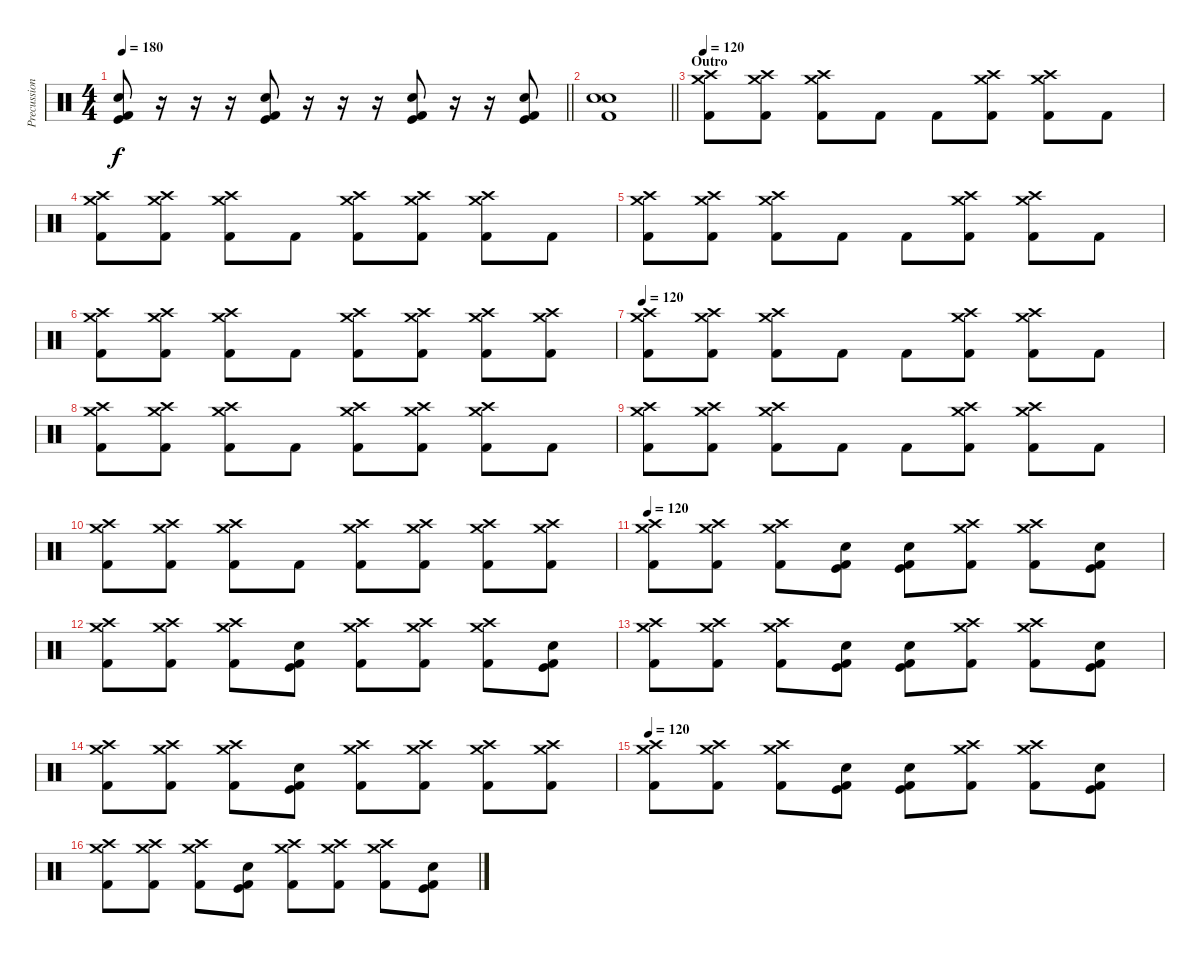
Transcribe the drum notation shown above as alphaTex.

\track ("Precussion" "Precussion") {instrument percussion}
\staff {score}
\articulation defaults
\ts (4 4)
\tempo 180
\clef neutral
\barLineRight lightlight
\ks c
("Kick (hit)" "Snare (hit) 2" "Kick (hit) 2").8{dy f} r.16 r.16 r.16 ("Kick (hit)" "Snare (hit) 2" "Kick (hit) 2").8 r.16 r.16 r.16 ("Kick (hit)" "Snare (hit) 2" "Kick (hit) 2").8 r.16 r.16 ("Kick (hit)" "Snare (hit) 2" "Kick (hit) 2").8 |
\barLineRight lightlight
("Electric Snare (hit)" "Snare (hit) 2" "Kick (hit) 2").1 |
\section ("" "Outro")
\tempo 120
("Crash medium (hit)" "Crash high (hit)" "Kick (hit) 2").8 ("Crash medium (hit)" "Crash high (hit)" "Kick (hit) 2").8 ("Crash medium (hit)" "Crash high (hit)" "Kick (hit) 2").8 "Kick (hit) 2".8 "Kick (hit) 2".8 ("Crash medium (hit)" "Crash high (hit)" "Kick (hit) 2").8 ("Crash medium (hit)" "Crash high (hit)" "Kick (hit) 2").8 "Kick (hit) 2".8 |
("Crash medium (hit)" "Crash high (hit)" "Kick (hit) 2").8 ("Crash medium (hit)" "Crash high (hit)" "Kick (hit) 2").8 ("Crash medium (hit)" "Crash high (hit)" "Kick (hit) 2").8 "Kick (hit) 2".8 ("Crash medium (hit)" "Crash high (hit)" "Kick (hit) 2").8 ("Crash medium (hit)" "Crash high (hit)" "Kick (hit) 2").8 ("Crash medium (hit)" "Crash high (hit)" "Kick (hit) 2").8 "Kick (hit) 2".8 |
("Crash medium (hit)" "Crash high (hit)" "Kick (hit) 2").8 ("Crash medium (hit)" "Crash high (hit)" "Kick (hit) 2").8 ("Crash medium (hit)" "Crash high (hit)" "Kick (hit) 2").8 "Kick (hit) 2".8 "Kick (hit) 2".8 ("Crash medium (hit)" "Crash high (hit)" "Kick (hit) 2").8 ("Crash medium (hit)" "Crash high (hit)" "Kick (hit) 2").8 "Kick (hit) 2".8 |
("Crash medium (hit)" "Crash high (hit)" "Kick (hit) 2").8 ("Crash medium (hit)" "Crash high (hit)" "Kick (hit) 2").8 ("Crash medium (hit)" "Crash high (hit)" "Kick (hit) 2").8 "Kick (hit) 2".8 ("Crash medium (hit)" "Crash high (hit)" "Kick (hit) 2").8 ("Crash medium (hit)" "Crash high (hit)" "Kick (hit) 2").8 ("Crash medium (hit)" "Crash high (hit)" "Kick (hit) 2").8 ("Crash medium (hit)" "Crash high (hit)" "Kick (hit) 2").8 |
\tempo 120
("Crash medium (hit)" "Crash high (hit)" "Kick (hit) 2").8 ("Crash medium (hit)" "Crash high (hit)" "Kick (hit) 2").8 ("Crash medium (hit)" "Crash high (hit)" "Kick (hit) 2").8 "Kick (hit) 2".8 "Kick (hit) 2".8 ("Crash medium (hit)" "Crash high (hit)" "Kick (hit) 2").8 ("Crash medium (hit)" "Crash high (hit)" "Kick (hit) 2").8 "Kick (hit) 2".8 |
("Crash medium (hit)" "Crash high (hit)" "Kick (hit) 2").8 ("Crash medium (hit)" "Crash high (hit)" "Kick (hit) 2").8 ("Crash medium (hit)" "Crash high (hit)" "Kick (hit) 2").8 "Kick (hit) 2".8 ("Crash medium (hit)" "Crash high (hit)" "Kick (hit) 2").8 ("Crash medium (hit)" "Crash high (hit)" "Kick (hit) 2").8 ("Crash medium (hit)" "Crash high (hit)" "Kick (hit) 2").8 "Kick (hit) 2".8 |
("Crash medium (hit)" "Crash high (hit)" "Kick (hit) 2").8 ("Crash medium (hit)" "Crash high (hit)" "Kick (hit) 2").8 ("Crash medium (hit)" "Crash high (hit)" "Kick (hit) 2").8 "Kick (hit) 2".8 "Kick (hit) 2".8 ("Crash medium (hit)" "Crash high (hit)" "Kick (hit) 2").8 ("Crash medium (hit)" "Crash high (hit)" "Kick (hit) 2").8 "Kick (hit) 2".8 |
("Crash medium (hit)" "Crash high (hit)" "Kick (hit) 2").8 ("Crash medium (hit)" "Crash high (hit)" "Kick (hit) 2").8 ("Crash medium (hit)" "Crash high (hit)" "Kick (hit) 2").8 "Kick (hit) 2".8 ("Crash medium (hit)" "Crash high (hit)" "Kick (hit) 2").8 ("Crash medium (hit)" "Crash high (hit)" "Kick (hit) 2").8 ("Crash medium (hit)" "Crash high (hit)" "Kick (hit) 2").8 ("Crash medium (hit)" "Crash high (hit)" "Kick (hit) 2").8 |
\tempo 120
("Crash medium (hit)" "Crash high (hit)" "Kick (hit) 2").8 ("Crash medium (hit)" "Crash high (hit)" "Kick (hit) 2").8 ("Crash medium (hit)" "Crash high (hit)" "Kick (hit) 2").8 ("Kick (hit)" "Snare (hit) 2" "Kick (hit) 2").8 ("Kick (hit)" "Snare (hit) 2" "Kick (hit) 2").8 ("Crash medium (hit)" "Crash high (hit)" "Kick (hit) 2").8 ("Crash medium (hit)" "Crash high (hit)" "Kick (hit) 2").8 ("Kick (hit)" "Snare (hit) 2" "Kick (hit) 2").8 |
("Crash medium (hit)" "Crash high (hit)" "Kick (hit) 2").8 ("Crash medium (hit)" "Crash high (hit)" "Kick (hit) 2").8 ("Crash medium (hit)" "Crash high (hit)" "Kick (hit) 2").8 ("Kick (hit)" "Snare (hit) 2" "Kick (hit) 2").8 ("Crash medium (hit)" "Crash high (hit)" "Kick (hit) 2").8 ("Crash medium (hit)" "Crash high (hit)" "Kick (hit) 2").8 ("Crash medium (hit)" "Crash high (hit)" "Kick (hit) 2").8 ("Kick (hit)" "Snare (hit) 2" "Kick (hit) 2").8 |
("Crash medium (hit)" "Crash high (hit)" "Kick (hit) 2").8 ("Crash medium (hit)" "Crash high (hit)" "Kick (hit) 2").8 ("Crash medium (hit)" "Crash high (hit)" "Kick (hit) 2").8 ("Kick (hit)" "Snare (hit) 2" "Kick (hit) 2").8 ("Kick (hit)" "Snare (hit) 2" "Kick (hit) 2").8 ("Crash medium (hit)" "Crash high (hit)" "Kick (hit) 2").8 ("Crash medium (hit)" "Crash high (hit)" "Kick (hit) 2").8 ("Kick (hit)" "Snare (hit) 2" "Kick (hit) 2").8 |
("Crash medium (hit)" "Crash high (hit)" "Kick (hit) 2").8 ("Crash medium (hit)" "Crash high (hit)" "Kick (hit) 2").8 ("Crash medium (hit)" "Crash high (hit)" "Kick (hit) 2").8 ("Kick (hit)" "Snare (hit) 2" "Kick (hit) 2").8 ("Crash medium (hit)" "Crash high (hit)" "Kick (hit) 2").8 ("Crash medium (hit)" "Crash high (hit)" "Kick (hit) 2").8 ("Crash medium (hit)" "Crash high (hit)" "Kick (hit) 2").8 ("Crash medium (hit)" "Crash high (hit)" "Kick (hit) 2").8 |
\tempo 120
("Crash medium (hit)" "Crash high (hit)" "Kick (hit) 2").8 ("Crash medium (hit)" "Crash high (hit)" "Kick (hit) 2").8 ("Crash medium (hit)" "Crash high (hit)" "Kick (hit) 2").8 ("Kick (hit)" "Snare (hit) 2" "Kick (hit) 2").8 ("Kick (hit)" "Snare (hit) 2" "Kick (hit) 2").8 ("Crash medium (hit)" "Crash high (hit)" "Kick (hit) 2").8 ("Crash medium (hit)" "Crash high (hit)" "Kick (hit) 2").8 ("Kick (hit)" "Snare (hit) 2" "Kick (hit) 2").8 |
("Crash medium (hit)" "Crash high (hit)" "Kick (hit) 2").8 ("Crash medium (hit)" "Crash high (hit)" "Kick (hit) 2").8 ("Crash medium (hit)" "Crash high (hit)" "Kick (hit) 2").8 ("Kick (hit)" "Snare (hit) 2" "Kick (hit) 2").8 ("Crash medium (hit)" "Crash high (hit)" "Kick (hit) 2").8 ("Crash medium (hit)" "Crash high (hit)" "Kick (hit) 2").8 ("Crash medium (hit)" "Crash high (hit)" "Kick (hit) 2").8 ("Kick (hit)" "Snare (hit) 2" "Kick (hit) 2").8
